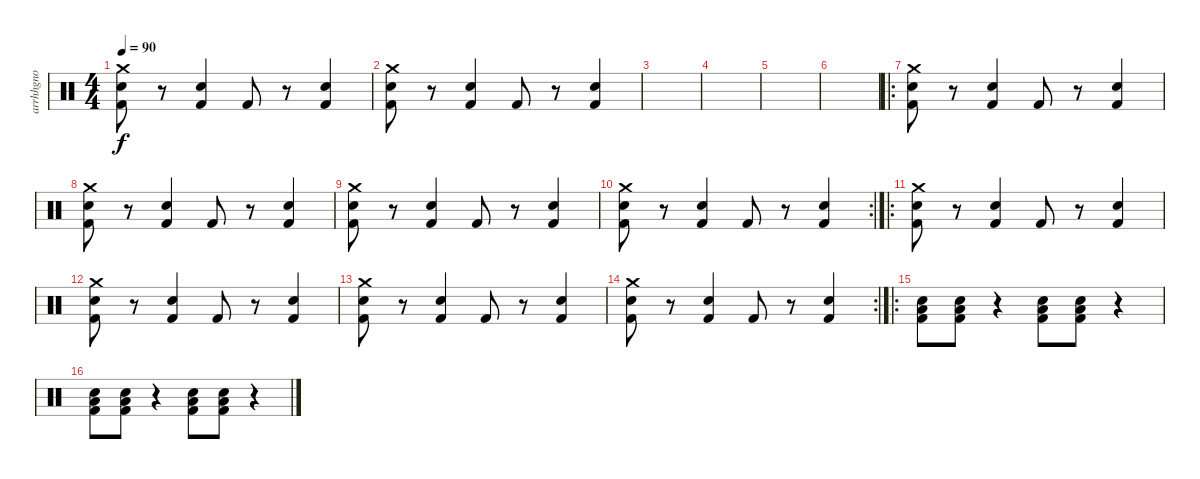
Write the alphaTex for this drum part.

\track ("arrhhgno" "arrhhgno") {instrument percussion}
\staff {score}
\articulation defaults
\ts (4 4)
\tempo 90
\clef neutral
\ks c
("Crash medium (hit)" "Electric Snare (hit)" "Kick (hit) 2").8{dy f} r.8 ("Kick (hit) 2" "Electric Snare (hit)").4 "Kick (hit) 2".8 r.8 ("Kick (hit) 2" "Electric Snare (hit)").4 |
("Crash medium (hit)" "Electric Snare (hit)" "Kick (hit) 2").8 r.8 ("Kick (hit) 2" "Electric Snare (hit)").4 "Kick (hit) 2".8 r.8 ("Kick (hit) 2" "Electric Snare (hit)").4 |
|
|
|
|
\ro
("Crash medium (hit)" "Electric Snare (hit)" "Kick (hit) 2").8 r.8 ("Kick (hit) 2" "Electric Snare (hit)").4 "Kick (hit) 2".8 r.8 ("Kick (hit) 2" "Electric Snare (hit)").4 |
("Crash medium (hit)" "Electric Snare (hit)" "Kick (hit) 2").8 r.8 ("Kick (hit) 2" "Electric Snare (hit)").4 "Kick (hit) 2".8 r.8 ("Kick (hit) 2" "Electric Snare (hit)").4 |
("Crash medium (hit)" "Electric Snare (hit)" "Kick (hit) 2").8 r.8 ("Kick (hit) 2" "Electric Snare (hit)").4 "Kick (hit) 2".8 r.8 ("Kick (hit) 2" "Electric Snare (hit)").4 |
\rc 2
("Crash medium (hit)" "Electric Snare (hit)" "Kick (hit) 2").8 r.8 ("Kick (hit) 2" "Electric Snare (hit)").4 "Kick (hit) 2".8 r.8 ("Kick (hit) 2" "Electric Snare (hit)").4 |
\ro
("Crash medium (hit)" "Electric Snare (hit)" "Kick (hit) 2").8 r.8 ("Kick (hit) 2" "Electric Snare (hit)").4 "Kick (hit) 2".8 r.8 ("Kick (hit) 2" "Electric Snare (hit)").4 |
("Crash medium (hit)" "Electric Snare (hit)" "Kick (hit) 2").8 r.8 ("Kick (hit) 2" "Electric Snare (hit)").4 "Kick (hit) 2".8 r.8 ("Kick (hit) 2" "Electric Snare (hit)").4 |
("Crash medium (hit)" "Electric Snare (hit)" "Kick (hit) 2").8 r.8 ("Kick (hit) 2" "Electric Snare (hit)").4 "Kick (hit) 2".8 r.8 ("Kick (hit) 2" "Electric Snare (hit)").4 |
\rc 2
("Crash medium (hit)" "Electric Snare (hit)" "Kick (hit) 2").8 r.8 ("Kick (hit) 2" "Electric Snare (hit)").4 "Kick (hit) 2".8 r.8 ("Kick (hit) 2" "Electric Snare (hit)").4 |
\ro
("Kick (hit) 2" "Low Tom (hit)" "Electric Snare (hit)").8 ("Kick (hit) 2" "Low Tom (hit)" "Electric Snare (hit)").8 r.4 ("Electric Snare (hit)" "Kick (hit) 2" "Low Tom (hit)").8 ("Kick (hit) 2" "Electric Snare (hit)" "Low Tom (hit)").8 r.4 |
("Kick (hit) 2" "Low Tom (hit)" "Electric Snare (hit)").8 ("Kick (hit) 2" "Low Tom (hit)" "Electric Snare (hit)").8 r.4 ("Electric Snare (hit)" "Kick (hit) 2" "Low Tom (hit)").8 ("Kick (hit) 2" "Electric Snare (hit)" "Low Tom (hit)").8 r.4
